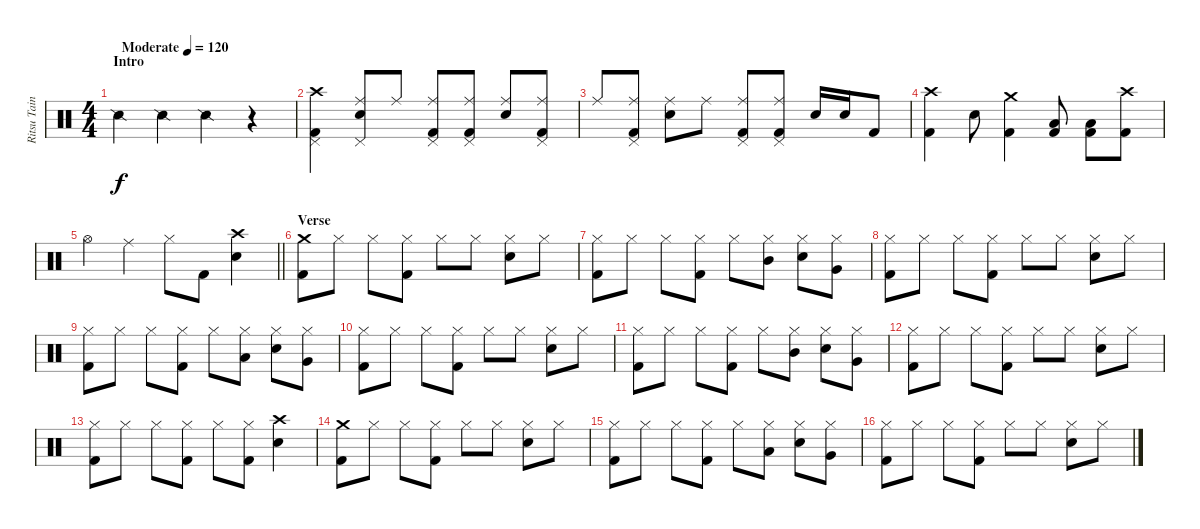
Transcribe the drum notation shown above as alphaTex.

\track ("Ritsu Tainaka" "Ritsu Tain") {instrument percussion}
\staff {score}
\articulation defaults
\ts (4 4)
\section ("" "Intro")
\tempo (120 "Moderate")
\clef neutral
\ks c "Snare (side stick) 2".4{dy f} "Snare (side stick) 2".4 "Snare (side stick) 2".4
r.4 |
("Crash high (hit)" "Pedal Hi-Hat (hit)" "Kick (hit) 2").4 ("Ride (middle)" "Pedal Hi-Hat (hit)" "Snare (hit) 2").8 "Ride (middle)".8 ("Ride (middle)" "Pedal Hi-Hat (hit)" "Kick (hit) 2").8 ("Ride (middle)" "Pedal Hi-Hat (hit)" "Kick (hit) 2").8 ("Ride (middle)" "Snare (hit) 2").8 ("Ride (middle)" "Pedal Hi-Hat (hit)" "Kick (hit) 2").8 |
"Ride (middle)".8 ("Ride (middle)" "Pedal Hi-Hat (hit)" "Kick (hit) 2").8 ("Ride (middle)" "Snare (hit) 2").8 "Ride (middle)".8 ("Ride (middle)" "Pedal Hi-Hat (hit)" "Kick (hit) 2").8 ("Ride (middle)" "Pedal Hi-Hat (hit)" "Kick (hit) 2").8 "Snare (hit) 2".16 "Snare (hit) 2".16 "Kick (hit) 2".8 |
("Crash high (hit)" "Kick (hit) 2").4 "Snare (hit) 2".8 ("Crash medium (hit)" "Kick (hit) 2").4 ("Low Tom (hit)" "Kick (hit) 2").8 ("Low Tom (hit)" "Kick (hit) 2").8 ("Crash high (hit)" "Kick (hit) 2").8 |
\barLineRight lightlight "Hi-Hat (open)".4 "Ride (middle)".4 "Hi-Hat (closed)".8 "Kick (hit) 2".8
("Crash high (hit)" "Snare (hit) 2").4 |
\section ("" "Verse")
("Crash medium (hit)" "Kick (hit) 2").8 "Hi-Hat (closed)".8 "Hi-Hat (closed)".8 ("Hi-Hat (closed)" "Kick (hit) 2").8 "Hi-Hat (closed)".8 "Hi-Hat (closed)".8 ("Hi-Hat (closed)" "Snare (hit) 2").8 "Hi-Hat (closed)".8 |
("Hi-Hat (closed)" "Kick (hit) 2").8 "Hi-Hat (closed)".8 "Hi-Hat (closed)".8 ("Hi-Hat (closed)" "Kick (hit) 2").8 "Hi-Hat (closed)".8 ("Mid Tom (hit)" "Hi-Hat (closed)").8 ("Hi-Hat (closed)" "Snare (hit) 2").8 ("Very Low Tom (hit)" "Hi-Hat (closed)").8 |
("Hi-Hat (closed)" "Kick (hit) 2").8 "Hi-Hat (closed)".8 "Hi-Hat (closed)".8 ("Hi-Hat (closed)" "Kick (hit) 2").8 "Hi-Hat (closed)".8 "Hi-Hat (closed)".8 ("Hi-Hat (closed)" "Snare (hit) 2").8 "Hi-Hat (closed)".8 |
("Hi-Hat (closed)" "Kick (hit) 2").8 "Hi-Hat (closed)".8 "Hi-Hat (closed)".8 ("Hi-Hat (closed)" "Kick (hit) 2").8 "Hi-Hat (closed)".8 ("Low Tom (hit)" "Hi-Hat (closed)").8 ("Hi-Hat (closed)" "Snare (hit) 2").8 ("Very Low Tom (hit)" "Hi-Hat (closed)").8 |
("Hi-Hat (closed)" "Kick (hit) 2").8 "Hi-Hat (closed)".8 "Hi-Hat (closed)".8 ("Hi-Hat (closed)" "Kick (hit) 2").8 "Hi-Hat (closed)".8 "Hi-Hat (closed)".8 ("Hi-Hat (closed)" "Snare (hit) 2").8 "Hi-Hat (closed)".8 |
("Hi-Hat (closed)" "Kick (hit) 2").8 "Hi-Hat (closed)".8 "Hi-Hat (closed)".8 ("Hi-Hat (closed)" "Kick (hit) 2").8 "Hi-Hat (closed)".8 ("Mid Tom (hit)" "Hi-Hat (closed)").8 ("Hi-Hat (closed)" "Snare (hit) 2").8 ("Very Low Tom (hit)" "Hi-Hat (closed)").8 |
("Hi-Hat (closed)" "Kick (hit) 2").8 "Hi-Hat (closed)".8 "Hi-Hat (closed)".8 ("Hi-Hat (closed)" "Kick (hit) 2").8 "Hi-Hat (closed)".8 "Hi-Hat (closed)".8 ("Hi-Hat (closed)" "Snare (hit) 2").8 "Hi-Hat (closed)".8 |
("Hi-Hat (closed)" "Kick (hit) 2").8 "Hi-Hat (closed)".8 "Hi-Hat (closed)".8 ("Hi-Hat (closed)" "Kick (hit) 2").8 "Hi-Hat (closed)".8 ("Hi-Hat (closed)" "Kick (hit) 2").8 ("Crash high (hit)" "Snare (hit) 2").4 |
("Crash medium (hit)" "Kick (hit) 2").8 "Hi-Hat (closed)".8 "Hi-Hat (closed)".8 ("Hi-Hat (closed)" "Kick (hit) 2").8 "Hi-Hat (closed)".8 "Hi-Hat (closed)".8 ("Hi-Hat (closed)" "Snare (hit) 2").8 "Hi-Hat (closed)".8 |
("Hi-Hat (closed)" "Kick (hit) 2").8 "Hi-Hat (closed)".8 "Hi-Hat (closed)".8 ("Hi-Hat (closed)" "Kick (hit) 2").8 "Hi-Hat (closed)".8 ("Low Tom (hit)" "Hi-Hat (closed)").8 ("Hi-Hat (closed)" "Snare (hit) 2").8 ("Very Low Tom (hit)" "Hi-Hat (closed)").8 |
("Hi-Hat (closed)" "Kick (hit) 2").8 "Hi-Hat (closed)".8 "Hi-Hat (closed)".8 ("Hi-Hat (closed)" "Kick (hit) 2").8 "Hi-Hat (closed)".8 "Hi-Hat (closed)".8 ("Hi-Hat (closed)" "Snare (hit) 2").8 "Hi-Hat (closed)".8
